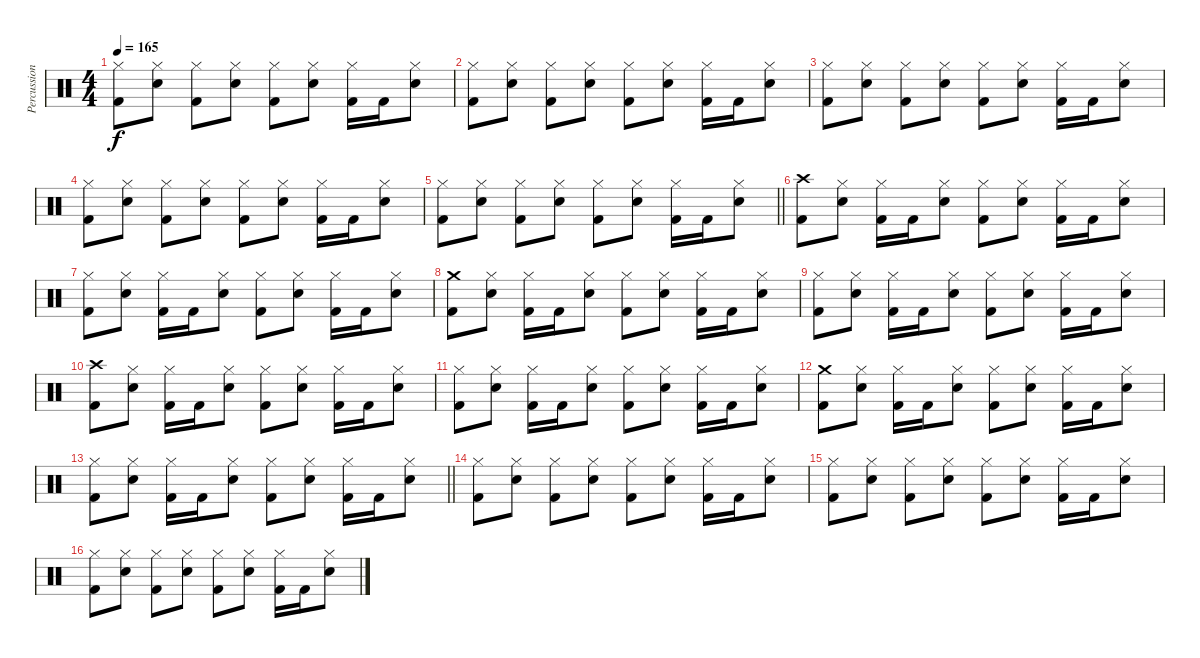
\track ("Percussion" "Percussion") {instrument percussion}
\staff {score}
\articulation defaults
\ts (4 4)
\tempo 165
\clef neutral
\ks c
("Hi-Hat (closed)" "Kick (hit) 2").8{dy f} ("Hi-Hat (closed)" "Electric Snare (hit)").8 ("Hi-Hat (closed)" "Kick (hit) 2").8 ("Hi-Hat (closed)" "Electric Snare (hit)").8 ("Hi-Hat (closed)" "Kick (hit) 2").8 ("Hi-Hat (closed)" "Electric Snare (hit)").8 ("Hi-Hat (closed)" "Kick (hit) 2").16 "Kick (hit) 2".16 ("Hi-Hat (closed)" "Electric Snare (hit)").8 |
("Hi-Hat (closed)" "Kick (hit) 2").8 ("Hi-Hat (closed)" "Electric Snare (hit)").8 ("Hi-Hat (closed)" "Kick (hit) 2").8 ("Hi-Hat (closed)" "Electric Snare (hit)").8 ("Hi-Hat (closed)" "Kick (hit) 2").8 ("Hi-Hat (closed)" "Electric Snare (hit)").8 ("Hi-Hat (closed)" "Kick (hit) 2").16 "Kick (hit) 2".16 ("Hi-Hat (closed)" "Electric Snare (hit)").8 |
("Hi-Hat (closed)" "Kick (hit) 2").8 ("Hi-Hat (closed)" "Electric Snare (hit)").8 ("Hi-Hat (closed)" "Kick (hit) 2").8 ("Hi-Hat (closed)" "Electric Snare (hit)").8 ("Hi-Hat (closed)" "Kick (hit) 2").8 ("Hi-Hat (closed)" "Electric Snare (hit)").8 ("Hi-Hat (closed)" "Kick (hit) 2").16 "Kick (hit) 2".16 ("Hi-Hat (closed)" "Electric Snare (hit)").8 |
("Hi-Hat (closed)" "Kick (hit) 2").8 ("Hi-Hat (closed)" "Electric Snare (hit)").8 ("Hi-Hat (closed)" "Kick (hit) 2").8 ("Hi-Hat (closed)" "Electric Snare (hit)").8 ("Hi-Hat (closed)" "Kick (hit) 2").8 ("Hi-Hat (closed)" "Electric Snare (hit)").8 ("Hi-Hat (closed)" "Kick (hit) 2").16 "Kick (hit) 2".16 ("Hi-Hat (closed)" "Electric Snare (hit)").8 |
\barLineRight lightlight
("Hi-Hat (closed)" "Kick (hit) 2").8 ("Hi-Hat (closed)" "Electric Snare (hit)").8 ("Hi-Hat (closed)" "Kick (hit) 2").8 ("Hi-Hat (closed)" "Electric Snare (hit)").8 ("Hi-Hat (closed)" "Kick (hit) 2").8 ("Hi-Hat (closed)" "Electric Snare (hit)").8 ("Hi-Hat (closed)" "Kick (hit) 2").16 "Kick (hit) 2".16 ("Hi-Hat (closed)" "Electric Snare (hit)").8 |
("Crash high (hit)" "Kick (hit) 2").8 ("Hi-Hat (closed)" "Electric Snare (hit)").8 ("Hi-Hat (closed)" "Kick (hit) 2").16 "Kick (hit) 2".16 ("Hi-Hat (closed)" "Electric Snare (hit)").8 ("Hi-Hat (closed)" "Kick (hit) 2").8 ("Hi-Hat (closed)" "Electric Snare (hit)").8 ("Hi-Hat (closed)" "Kick (hit) 2").16 "Kick (hit) 2".16 ("Hi-Hat (closed)" "Electric Snare (hit)").8 |
("Hi-Hat (closed)" "Kick (hit) 2").8 ("Hi-Hat (closed)" "Electric Snare (hit)").8 ("Hi-Hat (closed)" "Kick (hit) 2").16 "Kick (hit) 2".16 ("Hi-Hat (closed)" "Electric Snare (hit)").8 ("Hi-Hat (closed)" "Kick (hit) 2").8 ("Hi-Hat (closed)" "Electric Snare (hit)").8 ("Hi-Hat (closed)" "Kick (hit) 2").16 "Kick (hit) 2".16 ("Hi-Hat (closed)" "Electric Snare (hit)").8 |
("Crash medium (hit)" "Kick (hit) 2").8 ("Hi-Hat (closed)" "Electric Snare (hit)").8 ("Hi-Hat (closed)" "Kick (hit) 2").16 "Kick (hit) 2".16 ("Hi-Hat (closed)" "Electric Snare (hit)").8 ("Hi-Hat (closed)" "Kick (hit) 2").8 ("Hi-Hat (closed)" "Electric Snare (hit)").8 ("Hi-Hat (closed)" "Kick (hit) 2").16 "Kick (hit) 2".16 ("Hi-Hat (closed)" "Electric Snare (hit)").8 |
("Hi-Hat (closed)" "Kick (hit) 2").8 ("Hi-Hat (closed)" "Electric Snare (hit)").8 ("Hi-Hat (closed)" "Kick (hit) 2").16 "Kick (hit) 2".16 ("Hi-Hat (closed)" "Electric Snare (hit)").8 ("Hi-Hat (closed)" "Kick (hit) 2").8 ("Hi-Hat (closed)" "Electric Snare (hit)").8 ("Hi-Hat (closed)" "Kick (hit) 2").16 "Kick (hit) 2".16 ("Hi-Hat (closed)" "Electric Snare (hit)").8 |
("Crash high (hit)" "Kick (hit) 2").8 ("Hi-Hat (closed)" "Electric Snare (hit)").8 ("Hi-Hat (closed)" "Kick (hit) 2").16 "Kick (hit) 2".16 ("Hi-Hat (closed)" "Electric Snare (hit)").8 ("Hi-Hat (closed)" "Kick (hit) 2").8 ("Hi-Hat (closed)" "Electric Snare (hit)").8 ("Hi-Hat (closed)" "Kick (hit) 2").16 "Kick (hit) 2".16 ("Hi-Hat (closed)" "Electric Snare (hit)").8 |
("Hi-Hat (closed)" "Kick (hit) 2").8 ("Hi-Hat (closed)" "Electric Snare (hit)").8 ("Hi-Hat (closed)" "Kick (hit) 2").16 "Kick (hit) 2".16 ("Hi-Hat (closed)" "Electric Snare (hit)").8 ("Hi-Hat (closed)" "Kick (hit) 2").8 ("Hi-Hat (closed)" "Electric Snare (hit)").8 ("Hi-Hat (closed)" "Kick (hit) 2").16 "Kick (hit) 2".16 ("Hi-Hat (closed)" "Electric Snare (hit)").8 |
("Crash medium (hit)" "Kick (hit) 2").8 ("Hi-Hat (closed)" "Electric Snare (hit)").8 ("Hi-Hat (closed)" "Kick (hit) 2").16 "Kick (hit) 2".16 ("Hi-Hat (closed)" "Electric Snare (hit)").8 ("Hi-Hat (closed)" "Kick (hit) 2").8 ("Hi-Hat (closed)" "Electric Snare (hit)").8 ("Hi-Hat (closed)" "Kick (hit) 2").16 "Kick (hit) 2".16 ("Hi-Hat (closed)" "Electric Snare (hit)").8 |
\barLineRight lightlight
("Hi-Hat (closed)" "Kick (hit) 2").8 ("Hi-Hat (closed)" "Electric Snare (hit)").8 ("Hi-Hat (closed)" "Kick (hit) 2").16 "Kick (hit) 2".16 ("Hi-Hat (closed)" "Electric Snare (hit)").8 ("Hi-Hat (closed)" "Kick (hit) 2").8 ("Hi-Hat (closed)" "Electric Snare (hit)").8 ("Hi-Hat (closed)" "Kick (hit) 2").16 "Kick (hit) 2".16 ("Hi-Hat (closed)" "Electric Snare (hit)").8 |
("Hi-Hat (closed)" "Kick (hit) 2").8 ("Hi-Hat (closed)" "Electric Snare (hit)").8 ("Hi-Hat (closed)" "Kick (hit) 2").8 ("Hi-Hat (closed)" "Electric Snare (hit)").8 ("Hi-Hat (closed)" "Kick (hit) 2").8 ("Hi-Hat (closed)" "Electric Snare (hit)").8 ("Hi-Hat (closed)" "Kick (hit) 2").16 "Kick (hit) 2".16 ("Hi-Hat (closed)" "Electric Snare (hit)").8 |
("Hi-Hat (closed)" "Kick (hit) 2").8 ("Hi-Hat (closed)" "Electric Snare (hit)").8 ("Hi-Hat (closed)" "Kick (hit) 2").8 ("Hi-Hat (closed)" "Electric Snare (hit)").8 ("Hi-Hat (closed)" "Kick (hit) 2").8 ("Hi-Hat (closed)" "Electric Snare (hit)").8 ("Hi-Hat (closed)" "Kick (hit) 2").16 "Kick (hit) 2".16 ("Hi-Hat (closed)" "Electric Snare (hit)").8 |
("Hi-Hat (closed)" "Kick (hit) 2").8 ("Hi-Hat (closed)" "Electric Snare (hit)").8 ("Hi-Hat (closed)" "Kick (hit) 2").8 ("Hi-Hat (closed)" "Electric Snare (hit)").8 ("Hi-Hat (closed)" "Kick (hit) 2").8 ("Hi-Hat (closed)" "Electric Snare (hit)").8 ("Hi-Hat (closed)" "Kick (hit) 2").16 "Kick (hit) 2".16 ("Hi-Hat (closed)" "Electric Snare (hit)").8
